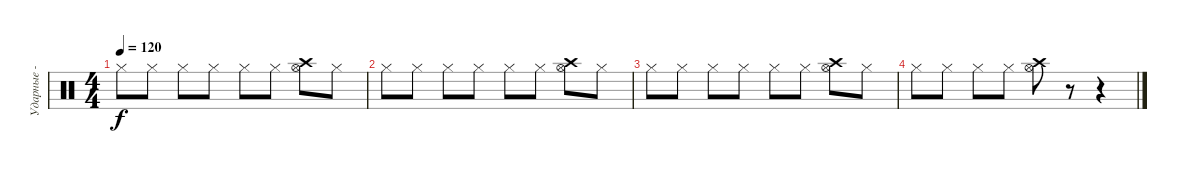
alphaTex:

\track ("Ударные - 2" "Ударные - ") {instrument percussion}
\staff {score}
\articulation defaults
\ts (4 4)
\tempo 120
\clef neutral
\ks c "Hi-Hat (closed)".8{dy f} "Hi-Hat (closed)".8 "Hi-Hat (closed)".8 "Hi-Hat (closed)".8 "Hi-Hat (closed)".8 "Hi-Hat (closed)".8
("Hi-Hat (open)" "Crash high (hit)").8 "Hi-Hat (closed)".8 |
"Hi-Hat (closed)".8 "Hi-Hat (closed)".8 "Hi-Hat (closed)".8 "Hi-Hat (closed)".8 "Hi-Hat (closed)".8 "Hi-Hat (closed)".8 ("Hi-Hat (open)" "Crash high (hit)").8 "Hi-Hat (closed)".8 |
"Hi-Hat (closed)".8 "Hi-Hat (closed)".8 "Hi-Hat (closed)".8 "Hi-Hat (closed)".8 "Hi-Hat (closed)".8 "Hi-Hat (closed)".8 ("Hi-Hat (open)" "Crash high (hit)").8 "Hi-Hat (closed)".8 |
"Hi-Hat (closed)".8 "Hi-Hat (closed)".8 "Hi-Hat (closed)".8 "Hi-Hat (closed)".8 ("Hi-Hat (open)" "Crash high (hit)").8 r.8 r.4
